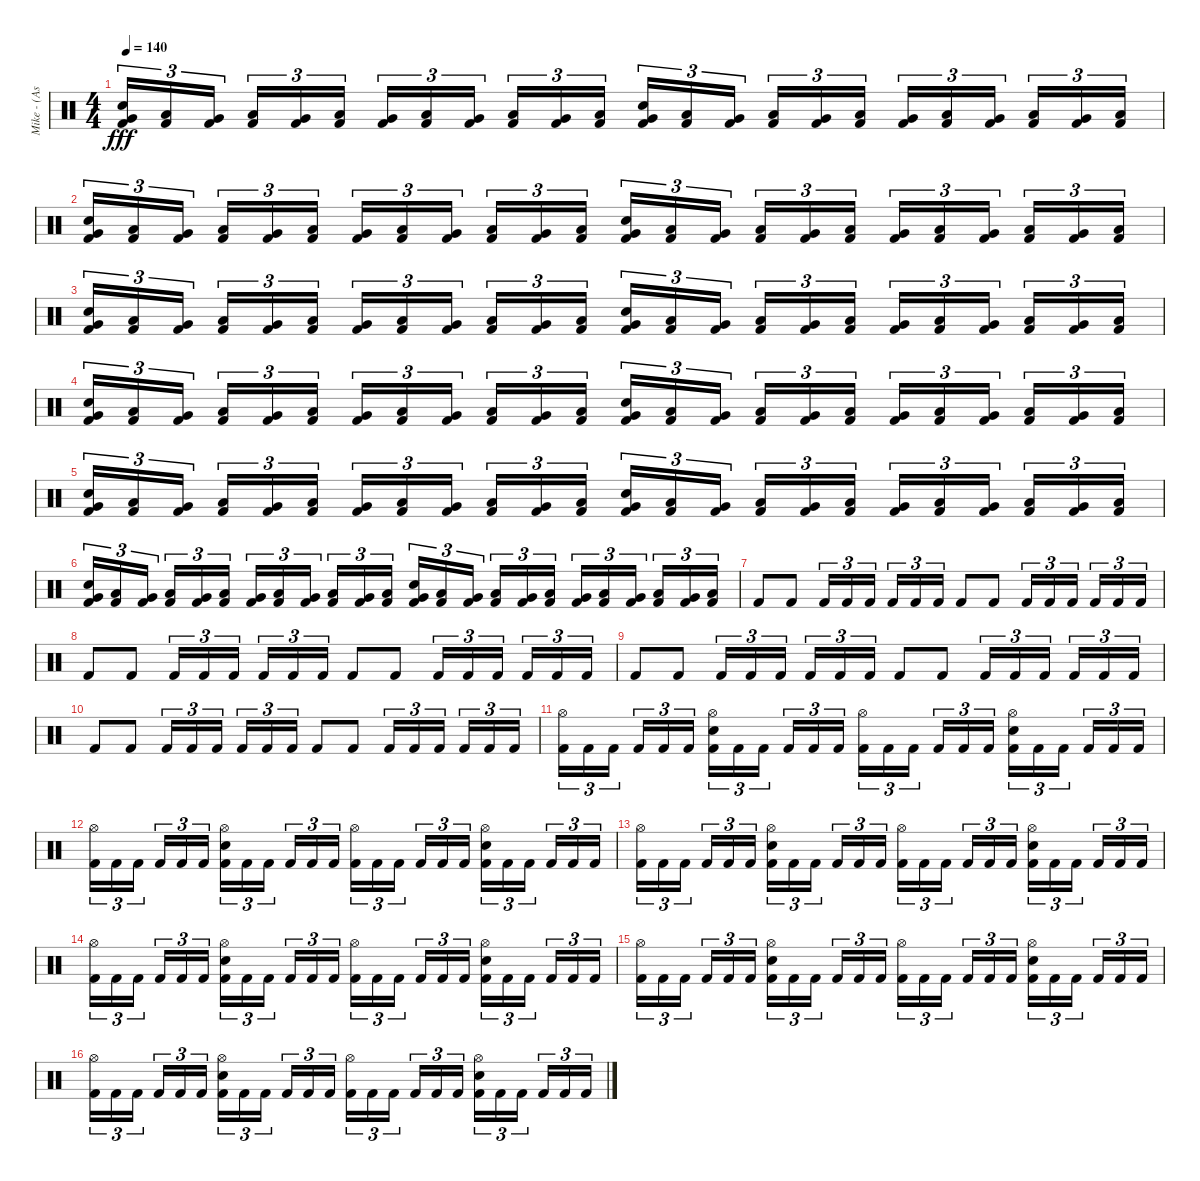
\track ("Mike - (Assault and Battery)" "Mike - (As") {instrument percussion}
\staff {score}
\articulation defaults
\ts (4 4)
\tempo 140
\clef neutral
\ks c
("Electric Snare (hit)" "Very Low Tom (hit)" "Kick (hit) 2").16{tu (3 2) dy fff} ("Low Floor Tom (hit)" "Kick (hit) 2").16{tu (3 2)} ("Very Low Tom (hit)" "Kick (hit) 2").16{tu (3 2)} ("Low Floor Tom (hit)" "Kick (hit) 2").16{tu (3 2)} ("Very Low Tom (hit)" "Kick (hit) 2").16{tu (3 2)} ("Low Floor Tom (hit)" "Kick (hit) 2").16{tu (3 2)} ("Very Low Tom (hit)" "Kick (hit) 2").16{tu (3 2)} ("Low Floor Tom (hit)" "Kick (hit) 2").16{tu (3 2)} ("Very Low Tom (hit)" "Kick (hit) 2").16{tu (3 2)} ("Low Floor Tom (hit)" "Kick (hit) 2").16{tu (3 2)} ("Very Low Tom (hit)" "Kick (hit) 2").16{tu (3 2)} ("Low Floor Tom (hit)" "Kick (hit) 2").16{tu (3 2)} ("Electric Snare (hit)" "Very Low Tom (hit)" "Kick (hit) 2").16{tu (3 2)} ("Low Floor Tom (hit)" "Kick (hit) 2").16{tu (3 2)} ("Very Low Tom (hit)" "Kick (hit) 2").16{tu (3 2)} ("Low Floor Tom (hit)" "Kick (hit) 2").16{tu (3 2)} ("Very Low Tom (hit)" "Kick (hit) 2").16{tu (3 2)} ("Low Floor Tom (hit)" "Kick (hit) 2").16{tu (3 2)} ("Very Low Tom (hit)" "Kick (hit) 2").16{tu (3 2)} ("Low Floor Tom (hit)" "Kick (hit) 2").16{tu (3 2)} ("Very Low Tom (hit)" "Kick (hit) 2").16{tu (3 2)} ("Low Floor Tom (hit)" "Kick (hit) 2").16{tu (3 2)} ("Very Low Tom (hit)" "Kick (hit) 2").16{tu (3 2)} ("Low Floor Tom (hit)" "Kick (hit) 2").16{tu (3 2)} |
("Electric Snare (hit)" "Very Low Tom (hit)" "Kick (hit) 2").16{tu (3 2)} ("Low Floor Tom (hit)" "Kick (hit) 2").16{tu (3 2)} ("Very Low Tom (hit)" "Kick (hit) 2").16{tu (3 2)} ("Low Floor Tom (hit)" "Kick (hit) 2").16{tu (3 2)} ("Very Low Tom (hit)" "Kick (hit) 2").16{tu (3 2)} ("Low Floor Tom (hit)" "Kick (hit) 2").16{tu (3 2)} ("Very Low Tom (hit)" "Kick (hit) 2").16{tu (3 2)} ("Low Floor Tom (hit)" "Kick (hit) 2").16{tu (3 2)} ("Very Low Tom (hit)" "Kick (hit) 2").16{tu (3 2)} ("Low Floor Tom (hit)" "Kick (hit) 2").16{tu (3 2)} ("Very Low Tom (hit)" "Kick (hit) 2").16{tu (3 2)} ("Low Floor Tom (hit)" "Kick (hit) 2").16{tu (3 2)} ("Electric Snare (hit)" "Very Low Tom (hit)" "Kick (hit) 2").16{tu (3 2)} ("Low Floor Tom (hit)" "Kick (hit) 2").16{tu (3 2)} ("Very Low Tom (hit)" "Kick (hit) 2").16{tu (3 2)} ("Low Floor Tom (hit)" "Kick (hit) 2").16{tu (3 2)} ("Very Low Tom (hit)" "Kick (hit) 2").16{tu (3 2)} ("Low Floor Tom (hit)" "Kick (hit) 2").16{tu (3 2)} ("Very Low Tom (hit)" "Kick (hit) 2").16{tu (3 2)} ("Low Floor Tom (hit)" "Kick (hit) 2").16{tu (3 2)} ("Very Low Tom (hit)" "Kick (hit) 2").16{tu (3 2)} ("Low Floor Tom (hit)" "Kick (hit) 2").16{tu (3 2)} ("Very Low Tom (hit)" "Kick (hit) 2").16{tu (3 2)} ("Low Floor Tom (hit)" "Kick (hit) 2").16{tu (3 2)} |
("Electric Snare (hit)" "Very Low Tom (hit)" "Kick (hit) 2").16{tu (3 2)} ("Low Floor Tom (hit)" "Kick (hit) 2").16{tu (3 2)} ("Very Low Tom (hit)" "Kick (hit) 2").16{tu (3 2)} ("Low Floor Tom (hit)" "Kick (hit) 2").16{tu (3 2)} ("Very Low Tom (hit)" "Kick (hit) 2").16{tu (3 2)} ("Low Floor Tom (hit)" "Kick (hit) 2").16{tu (3 2)} ("Very Low Tom (hit)" "Kick (hit) 2").16{tu (3 2)} ("Low Floor Tom (hit)" "Kick (hit) 2").16{tu (3 2)} ("Very Low Tom (hit)" "Kick (hit) 2").16{tu (3 2)} ("Low Floor Tom (hit)" "Kick (hit) 2").16{tu (3 2)} ("Very Low Tom (hit)" "Kick (hit) 2").16{tu (3 2)} ("Low Floor Tom (hit)" "Kick (hit) 2").16{tu (3 2)} ("Electric Snare (hit)" "Very Low Tom (hit)" "Kick (hit) 2").16{tu (3 2)} ("Low Floor Tom (hit)" "Kick (hit) 2").16{tu (3 2)} ("Very Low Tom (hit)" "Kick (hit) 2").16{tu (3 2)} ("Low Floor Tom (hit)" "Kick (hit) 2").16{tu (3 2)} ("Very Low Tom (hit)" "Kick (hit) 2").16{tu (3 2)} ("Low Floor Tom (hit)" "Kick (hit) 2").16{tu (3 2)} ("Very Low Tom (hit)" "Kick (hit) 2").16{tu (3 2)} ("Low Floor Tom (hit)" "Kick (hit) 2").16{tu (3 2)} ("Very Low Tom (hit)" "Kick (hit) 2").16{tu (3 2)} ("Low Floor Tom (hit)" "Kick (hit) 2").16{tu (3 2)} ("Very Low Tom (hit)" "Kick (hit) 2").16{tu (3 2)} ("Low Floor Tom (hit)" "Kick (hit) 2").16{tu (3 2)} |
("Electric Snare (hit)" "Very Low Tom (hit)" "Kick (hit) 2").16{tu (3 2)} ("Low Floor Tom (hit)" "Kick (hit) 2").16{tu (3 2)} ("Very Low Tom (hit)" "Kick (hit) 2").16{tu (3 2)} ("Low Floor Tom (hit)" "Kick (hit) 2").16{tu (3 2)} ("Very Low Tom (hit)" "Kick (hit) 2").16{tu (3 2)} ("Low Floor Tom (hit)" "Kick (hit) 2").16{tu (3 2)} ("Very Low Tom (hit)" "Kick (hit) 2").16{tu (3 2)} ("Low Floor Tom (hit)" "Kick (hit) 2").16{tu (3 2)} ("Very Low Tom (hit)" "Kick (hit) 2").16{tu (3 2)} ("Low Floor Tom (hit)" "Kick (hit) 2").16{tu (3 2)} ("Very Low Tom (hit)" "Kick (hit) 2").16{tu (3 2)} ("Low Floor Tom (hit)" "Kick (hit) 2").16{tu (3 2)} ("Electric Snare (hit)" "Very Low Tom (hit)" "Kick (hit) 2").16{tu (3 2)} ("Low Floor Tom (hit)" "Kick (hit) 2").16{tu (3 2)} ("Very Low Tom (hit)" "Kick (hit) 2").16{tu (3 2)} ("Low Floor Tom (hit)" "Kick (hit) 2").16{tu (3 2)} ("Very Low Tom (hit)" "Kick (hit) 2").16{tu (3 2)} ("Low Floor Tom (hit)" "Kick (hit) 2").16{tu (3 2)} ("Very Low Tom (hit)" "Kick (hit) 2").16{tu (3 2)} ("Low Floor Tom (hit)" "Kick (hit) 2").16{tu (3 2)} ("Very Low Tom (hit)" "Kick (hit) 2").16{tu (3 2)} ("Low Floor Tom (hit)" "Kick (hit) 2").16{tu (3 2)} ("Very Low Tom (hit)" "Kick (hit) 2").16{tu (3 2)} ("Low Floor Tom (hit)" "Kick (hit) 2").16{tu (3 2)} |
("Electric Snare (hit)" "Very Low Tom (hit)" "Kick (hit) 2").16{tu (3 2)} ("Low Floor Tom (hit)" "Kick (hit) 2").16{tu (3 2)} ("Very Low Tom (hit)" "Kick (hit) 2").16{tu (3 2)} ("Low Floor Tom (hit)" "Kick (hit) 2").16{tu (3 2)} ("Very Low Tom (hit)" "Kick (hit) 2").16{tu (3 2)} ("Low Floor Tom (hit)" "Kick (hit) 2").16{tu (3 2)} ("Very Low Tom (hit)" "Kick (hit) 2").16{tu (3 2)} ("Low Floor Tom (hit)" "Kick (hit) 2").16{tu (3 2)} ("Very Low Tom (hit)" "Kick (hit) 2").16{tu (3 2)} ("Low Floor Tom (hit)" "Kick (hit) 2").16{tu (3 2)} ("Very Low Tom (hit)" "Kick (hit) 2").16{tu (3 2)} ("Low Floor Tom (hit)" "Kick (hit) 2").16{tu (3 2)} ("Electric Snare (hit)" "Very Low Tom (hit)" "Kick (hit) 2").16{tu (3 2)} ("Low Floor Tom (hit)" "Kick (hit) 2").16{tu (3 2)} ("Very Low Tom (hit)" "Kick (hit) 2").16{tu (3 2)} ("Low Floor Tom (hit)" "Kick (hit) 2").16{tu (3 2)} ("Very Low Tom (hit)" "Kick (hit) 2").16{tu (3 2)} ("Low Floor Tom (hit)" "Kick (hit) 2").16{tu (3 2)} ("Very Low Tom (hit)" "Kick (hit) 2").16{tu (3 2)} ("Low Floor Tom (hit)" "Kick (hit) 2").16{tu (3 2)} ("Very Low Tom (hit)" "Kick (hit) 2").16{tu (3 2)} ("Low Floor Tom (hit)" "Kick (hit) 2").16{tu (3 2)} ("Very Low Tom (hit)" "Kick (hit) 2").16{tu (3 2)} ("Low Floor Tom (hit)" "Kick (hit) 2").16{tu (3 2)} |
("Electric Snare (hit)" "Very Low Tom (hit)" "Kick (hit) 2").16{tu (3 2)} ("Low Floor Tom (hit)" "Kick (hit) 2").16{tu (3 2)} ("Very Low Tom (hit)" "Kick (hit) 2").16{tu (3 2)} ("Low Floor Tom (hit)" "Kick (hit) 2").16{tu (3 2)} ("Very Low Tom (hit)" "Kick (hit) 2").16{tu (3 2)} ("Low Floor Tom (hit)" "Kick (hit) 2").16{tu (3 2)} ("Very Low Tom (hit)" "Kick (hit) 2").16{tu (3 2)} ("Low Floor Tom (hit)" "Kick (hit) 2").16{tu (3 2)} ("Very Low Tom (hit)" "Kick (hit) 2").16{tu (3 2)} ("Low Floor Tom (hit)" "Kick (hit) 2").16{tu (3 2)} ("Very Low Tom (hit)" "Kick (hit) 2").16{tu (3 2)} ("Low Floor Tom (hit)" "Kick (hit) 2").16{tu (3 2)} ("Electric Snare (hit)" "Very Low Tom (hit)" "Kick (hit) 2").16{tu (3 2)} ("Low Floor Tom (hit)" "Kick (hit) 2").16{tu (3 2)} ("Very Low Tom (hit)" "Kick (hit) 2").16{tu (3 2)} ("Low Floor Tom (hit)" "Kick (hit) 2").16{tu (3 2)} ("Very Low Tom (hit)" "Kick (hit) 2").16{tu (3 2)} ("Low Floor Tom (hit)" "Kick (hit) 2").16{tu (3 2)} ("Very Low Tom (hit)" "Kick (hit) 2").16{tu (3 2)} ("Low Floor Tom (hit)" "Kick (hit) 2").16{tu (3 2)} ("Very Low Tom (hit)" "Kick (hit) 2").16{tu (3 2)} ("Low Floor Tom (hit)" "Kick (hit) 2").16{tu (3 2)} ("Very Low Tom (hit)" "Kick (hit) 2").16{tu (3 2)} ("Low Floor Tom (hit)" "Kick (hit) 2").16{tu (3 2)} |
"Kick (hit) 2".8 "Kick (hit) 2".8 "Kick (hit) 2".16{tu (3 2)} "Kick (hit) 2".16{tu (3 2)} "Kick (hit) 2".16{tu (3 2)} "Kick (hit) 2".16{tu (3 2)} "Kick (hit) 2".16{tu (3 2)} "Kick (hit) 2".16{tu (3 2)} "Kick (hit) 2".8 "Kick (hit) 2".8 "Kick (hit) 2".16{tu (3 2)} "Kick (hit) 2".16{tu (3 2)} "Kick (hit) 2".16{tu (3 2)} "Kick (hit) 2".16{tu (3 2)} "Kick (hit) 2".16{tu (3 2)} "Kick (hit) 2".16{tu (3 2)} |
"Kick (hit) 2".8 "Kick (hit) 2".8 "Kick (hit) 2".16{tu (3 2)} "Kick (hit) 2".16{tu (3 2)} "Kick (hit) 2".16{tu (3 2)} "Kick (hit) 2".16{tu (3 2)} "Kick (hit) 2".16{tu (3 2)} "Kick (hit) 2".16{tu (3 2)} "Kick (hit) 2".8 "Kick (hit) 2".8 "Kick (hit) 2".16{tu (3 2)} "Kick (hit) 2".16{tu (3 2)} "Kick (hit) 2".16{tu (3 2)} "Kick (hit) 2".16{tu (3 2)} "Kick (hit) 2".16{tu (3 2)} "Kick (hit) 2".16{tu (3 2)} |
"Kick (hit) 2".8 "Kick (hit) 2".8 "Kick (hit) 2".16{tu (3 2)} "Kick (hit) 2".16{tu (3 2)} "Kick (hit) 2".16{tu (3 2)} "Kick (hit) 2".16{tu (3 2)} "Kick (hit) 2".16{tu (3 2)} "Kick (hit) 2".16{tu (3 2)} "Kick (hit) 2".8 "Kick (hit) 2".8 "Kick (hit) 2".16{tu (3 2)} "Kick (hit) 2".16{tu (3 2)} "Kick (hit) 2".16{tu (3 2)} "Kick (hit) 2".16{tu (3 2)} "Kick (hit) 2".16{tu (3 2)} "Kick (hit) 2".16{tu (3 2)} |
"Kick (hit) 2".8 "Kick (hit) 2".8 "Kick (hit) 2".16{tu (3 2)} "Kick (hit) 2".16{tu (3 2)} "Kick (hit) 2".16{tu (3 2)} "Kick (hit) 2".16{tu (3 2)} "Kick (hit) 2".16{tu (3 2)} "Kick (hit) 2".16{tu (3 2)} "Kick (hit) 2".8 "Kick (hit) 2".8 "Kick (hit) 2".16{tu (3 2)} "Kick (hit) 2".16{tu (3 2)} "Kick (hit) 2".16{tu (3 2)} "Kick (hit) 2".16{tu (3 2)} "Kick (hit) 2".16{tu (3 2)} "Kick (hit) 2".16{tu (3 2)} |
("Hi-Hat (open)" "Kick (hit) 2").16{tu (3 2)} "Kick (hit) 2".16{tu (3 2)} "Kick (hit) 2".16{tu (3 2)} "Kick (hit) 2".16{tu (3 2)} "Kick (hit) 2".16{tu (3 2)} "Kick (hit) 2".16{tu (3 2)} ("Hi-Hat (open)" "Electric Snare (hit)" "Kick (hit) 2").16{tu (3 2)} "Kick (hit) 2".16{tu (3 2)} "Kick (hit) 2".16{tu (3 2)} "Kick (hit) 2".16{tu (3 2)} "Kick (hit) 2".16{tu (3 2)} "Kick (hit) 2".16{tu (3 2)} ("Hi-Hat (open)" "Kick (hit) 2").16{tu (3 2)} "Kick (hit) 2".16{tu (3 2)} "Kick (hit) 2".16{tu (3 2)} "Kick (hit) 2".16{tu (3 2)} "Kick (hit) 2".16{tu (3 2)} "Kick (hit) 2".16{tu (3 2)} ("Hi-Hat (open)" "Electric Snare (hit)" "Kick (hit) 2").16{tu (3 2)} "Kick (hit) 2".16{tu (3 2)} "Kick (hit) 2".16{tu (3 2)} "Kick (hit) 2".16{tu (3 2)} "Kick (hit) 2".16{tu (3 2)} "Kick (hit) 2".16{tu (3 2)} |
("Hi-Hat (open)" "Kick (hit) 2").16{tu (3 2)} "Kick (hit) 2".16{tu (3 2)} "Kick (hit) 2".16{tu (3 2)} "Kick (hit) 2".16{tu (3 2)} "Kick (hit) 2".16{tu (3 2)} "Kick (hit) 2".16{tu (3 2)} ("Hi-Hat (open)" "Electric Snare (hit)" "Kick (hit) 2").16{tu (3 2)} "Kick (hit) 2".16{tu (3 2)} "Kick (hit) 2".16{tu (3 2)} "Kick (hit) 2".16{tu (3 2)} "Kick (hit) 2".16{tu (3 2)} "Kick (hit) 2".16{tu (3 2)} ("Hi-Hat (open)" "Kick (hit) 2").16{tu (3 2)} "Kick (hit) 2".16{tu (3 2)} "Kick (hit) 2".16{tu (3 2)} "Kick (hit) 2".16{tu (3 2)} "Kick (hit) 2".16{tu (3 2)} "Kick (hit) 2".16{tu (3 2)} ("Hi-Hat (open)" "Electric Snare (hit)" "Kick (hit) 2").16{tu (3 2)} "Kick (hit) 2".16{tu (3 2)} "Kick (hit) 2".16{tu (3 2)} "Kick (hit) 2".16{tu (3 2)} "Kick (hit) 2".16{tu (3 2)} "Kick (hit) 2".16{tu (3 2)} |
("Hi-Hat (open)" "Kick (hit) 2").16{tu (3 2)} "Kick (hit) 2".16{tu (3 2)} "Kick (hit) 2".16{tu (3 2)} "Kick (hit) 2".16{tu (3 2)} "Kick (hit) 2".16{tu (3 2)} "Kick (hit) 2".16{tu (3 2)} ("Hi-Hat (open)" "Electric Snare (hit)" "Kick (hit) 2").16{tu (3 2)} "Kick (hit) 2".16{tu (3 2)} "Kick (hit) 2".16{tu (3 2)} "Kick (hit) 2".16{tu (3 2)} "Kick (hit) 2".16{tu (3 2)} "Kick (hit) 2".16{tu (3 2)} ("Hi-Hat (open)" "Kick (hit) 2").16{tu (3 2)} "Kick (hit) 2".16{tu (3 2)} "Kick (hit) 2".16{tu (3 2)} "Kick (hit) 2".16{tu (3 2)} "Kick (hit) 2".16{tu (3 2)} "Kick (hit) 2".16{tu (3 2)} ("Hi-Hat (open)" "Electric Snare (hit)" "Kick (hit) 2").16{tu (3 2)} "Kick (hit) 2".16{tu (3 2)} "Kick (hit) 2".16{tu (3 2)} "Kick (hit) 2".16{tu (3 2)} "Kick (hit) 2".16{tu (3 2)} "Kick (hit) 2".16{tu (3 2)} |
("Hi-Hat (open)" "Kick (hit) 2").16{tu (3 2)} "Kick (hit) 2".16{tu (3 2)} "Kick (hit) 2".16{tu (3 2)} "Kick (hit) 2".16{tu (3 2)} "Kick (hit) 2".16{tu (3 2)} "Kick (hit) 2".16{tu (3 2)} ("Hi-Hat (open)" "Electric Snare (hit)" "Kick (hit) 2").16{tu (3 2)} "Kick (hit) 2".16{tu (3 2)} "Kick (hit) 2".16{tu (3 2)} "Kick (hit) 2".16{tu (3 2)} "Kick (hit) 2".16{tu (3 2)} "Kick (hit) 2".16{tu (3 2)} ("Hi-Hat (open)" "Kick (hit) 2").16{tu (3 2)} "Kick (hit) 2".16{tu (3 2)} "Kick (hit) 2".16{tu (3 2)} "Kick (hit) 2".16{tu (3 2)} "Kick (hit) 2".16{tu (3 2)} "Kick (hit) 2".16{tu (3 2)} ("Hi-Hat (open)" "Electric Snare (hit)" "Kick (hit) 2").16{tu (3 2)} "Kick (hit) 2".16{tu (3 2)} "Kick (hit) 2".16{tu (3 2)} "Kick (hit) 2".16{tu (3 2)} "Kick (hit) 2".16{tu (3 2)} "Kick (hit) 2".16{tu (3 2)} |
("Hi-Hat (open)" "Kick (hit) 2").16{tu (3 2)} "Kick (hit) 2".16{tu (3 2)} "Kick (hit) 2".16{tu (3 2)} "Kick (hit) 2".16{tu (3 2)} "Kick (hit) 2".16{tu (3 2)} "Kick (hit) 2".16{tu (3 2)} ("Hi-Hat (open)" "Electric Snare (hit)" "Kick (hit) 2").16{tu (3 2)} "Kick (hit) 2".16{tu (3 2)} "Kick (hit) 2".16{tu (3 2)} "Kick (hit) 2".16{tu (3 2)} "Kick (hit) 2".16{tu (3 2)} "Kick (hit) 2".16{tu (3 2)} ("Hi-Hat (open)" "Kick (hit) 2").16{tu (3 2)} "Kick (hit) 2".16{tu (3 2)} "Kick (hit) 2".16{tu (3 2)} "Kick (hit) 2".16{tu (3 2)} "Kick (hit) 2".16{tu (3 2)} "Kick (hit) 2".16{tu (3 2)} ("Hi-Hat (open)" "Electric Snare (hit)" "Kick (hit) 2").16{tu (3 2)} "Kick (hit) 2".16{tu (3 2)} "Kick (hit) 2".16{tu (3 2)} "Kick (hit) 2".16{tu (3 2)} "Kick (hit) 2".16{tu (3 2)} "Kick (hit) 2".16{tu (3 2)} |
("Hi-Hat (open)" "Kick (hit) 2").16{tu (3 2)} "Kick (hit) 2".16{tu (3 2)} "Kick (hit) 2".16{tu (3 2)} "Kick (hit) 2".16{tu (3 2)} "Kick (hit) 2".16{tu (3 2)} "Kick (hit) 2".16{tu (3 2)} ("Hi-Hat (open)" "Electric Snare (hit)" "Kick (hit) 2").16{tu (3 2)} "Kick (hit) 2".16{tu (3 2)} "Kick (hit) 2".16{tu (3 2)} "Kick (hit) 2".16{tu (3 2)} "Kick (hit) 2".16{tu (3 2)} "Kick (hit) 2".16{tu (3 2)} ("Hi-Hat (open)" "Kick (hit) 2").16{tu (3 2)} "Kick (hit) 2".16{tu (3 2)} "Kick (hit) 2".16{tu (3 2)} "Kick (hit) 2".16{tu (3 2)} "Kick (hit) 2".16{tu (3 2)} "Kick (hit) 2".16{tu (3 2)} ("Hi-Hat (open)" "Electric Snare (hit)" "Kick (hit) 2").16{tu (3 2)} "Kick (hit) 2".16{tu (3 2)} "Kick (hit) 2".16{tu (3 2)} "Kick (hit) 2".16{tu (3 2)} "Kick (hit) 2".16{tu (3 2)} "Kick (hit) 2".16{tu (3 2)}
